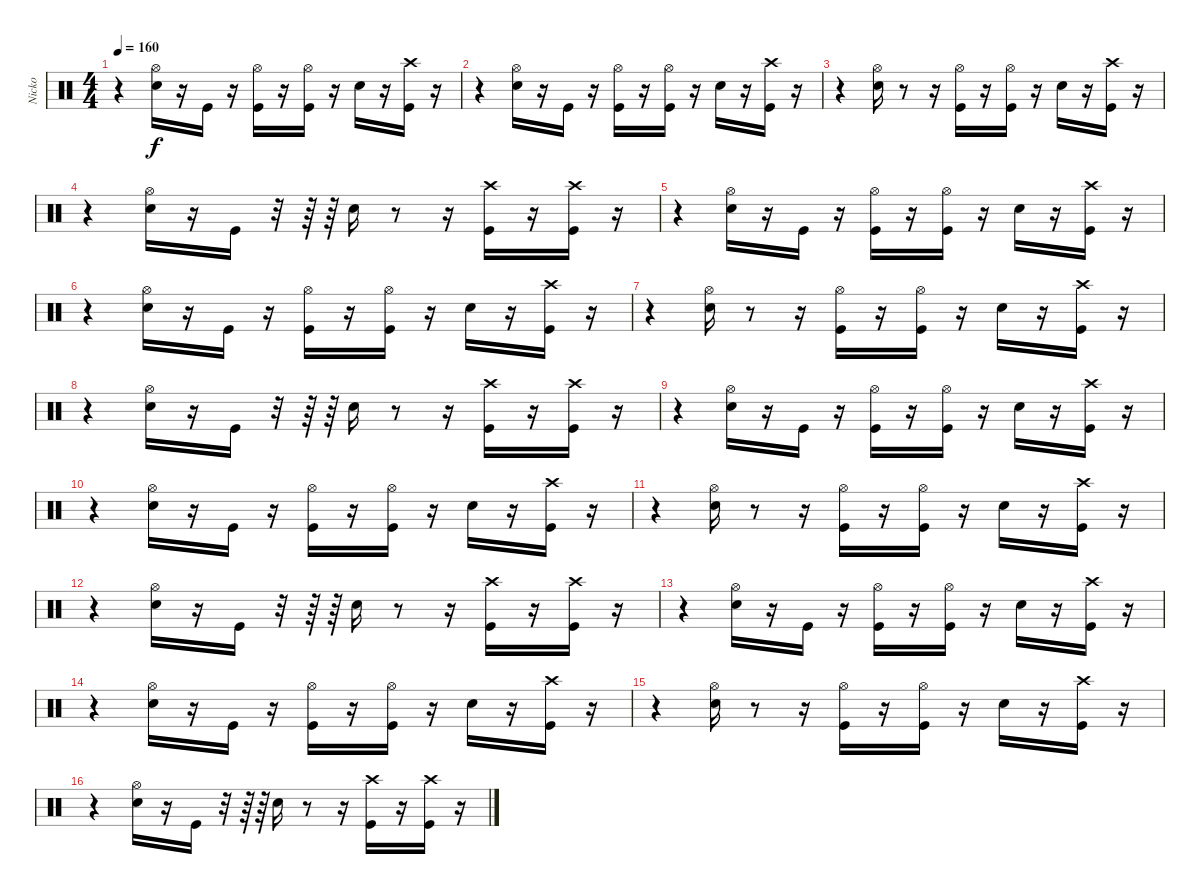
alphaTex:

\track ("Nicko" "Nicko") {instrument percussion}
\staff {score}
\articulation defaults
\ts (4 4)
\tempo 160
\clef neutral
\ks c
r.4{dy f} ("Hi-Hat (open)" "Snare (hit) 2").16 r.16 "Kick (hit)".16 r.16 ("Hi-Hat (open)" "Kick (hit)").16 r.16 ("Kick (hit)" "Hi-Hat (open)").16 r.16 "Snare (hit) 2".16 r.16 ("Kick (hit)" "Crash high (hit)").16 r.16 |
r.4 ("Snare (hit) 2" "Hi-Hat (open)").16 r.16 "Kick (hit)".16 r.16 ("Hi-Hat (open)" "Kick (hit)").16 r.16 ("Kick (hit)" "Hi-Hat (open)").16 r.16 "Snare (hit) 2".16 r.16 ("Kick (hit)" "Crash high (hit)").16 r.16 |
r.4 ("Snare (hit) 2" "Hi-Hat (open)").16 r.8 r.16 ("Hi-Hat (open)" "Kick (hit)").16 r.16 ("Hi-Hat (open)" "Kick (hit)").16 r.16 "Snare (hit) 2".16 r.16 ("Kick (hit)" "Crash high (hit)").16 r.16 |
r.4 ("Hi-Hat (open)" "Snare (hit) 2").16 r.16 "Kick (hit)".16 r.32 r.64 r.64 "Snare (hit) 2".16 r.8 r.16 ("Kick (hit)" "Crash high (hit)").16 r.16 ("Kick (hit)" "Crash high (hit)").16 r.16 |
r.4 ("Snare (hit) 2" "Hi-Hat (open)").16 r.16 "Kick (hit)".16 r.16 ("Hi-Hat (open)" "Kick (hit)").16 r.16 ("Kick (hit)" "Hi-Hat (open)").16 r.16 "Snare (hit) 2".16 r.16 ("Kick (hit)" "Crash high (hit)").16 r.16 |
r.4 ("Snare (hit) 2" "Hi-Hat (open)").16 r.16 "Kick (hit)".16 r.16 ("Hi-Hat (open)" "Kick (hit)").16 r.16 ("Kick (hit)" "Hi-Hat (open)").16 r.16 "Snare (hit) 2".16 r.16 ("Kick (hit)" "Crash high (hit)").16 r.16 |
r.4 ("Snare (hit) 2" "Hi-Hat (open)").16 r.8 r.16 ("Hi-Hat (open)" "Kick (hit)").16 r.16 ("Hi-Hat (open)" "Kick (hit)").16 r.16 "Snare (hit) 2".16 r.16 ("Kick (hit)" "Crash high (hit)").16 r.16 |
r.4 ("Hi-Hat (open)" "Snare (hit) 2").16 r.16 "Kick (hit)".16 r.32 r.64 r.64 "Snare (hit) 2".16 r.8 r.16 ("Kick (hit)" "Crash high (hit)").16 r.16 ("Kick (hit)" "Crash high (hit)").16 r.16 |
r.4 ("Snare (hit) 2" "Hi-Hat (open)").16 r.16 "Kick (hit)".16 r.16 ("Hi-Hat (open)" "Kick (hit)").16 r.16 ("Kick (hit)" "Hi-Hat (open)").16 r.16 "Snare (hit) 2".16 r.16 ("Kick (hit)" "Crash high (hit)").16 r.16 |
r.4 ("Snare (hit) 2" "Hi-Hat (open)").16 r.16 "Kick (hit)".16 r.16 ("Hi-Hat (open)" "Kick (hit)").16 r.16 ("Kick (hit)" "Hi-Hat (open)").16 r.16 "Snare (hit) 2".16 r.16 ("Kick (hit)" "Crash high (hit)").16 r.16 |
r.4 ("Snare (hit) 2" "Hi-Hat (open)").16 r.8 r.16 ("Hi-Hat (open)" "Kick (hit)").16 r.16 ("Hi-Hat (open)" "Kick (hit)").16 r.16 "Snare (hit) 2".16 r.16 ("Kick (hit)" "Crash high (hit)").16 r.16 |
r.4 ("Hi-Hat (open)" "Snare (hit) 2").16 r.16 "Kick (hit)".16 r.32 r.64 r.64 "Snare (hit) 2".16 r.8 r.16 ("Kick (hit)" "Crash high (hit)").16 r.16 ("Kick (hit)" "Crash high (hit)").16 r.16 |
r.4 ("Snare (hit) 2" "Hi-Hat (open)").16 r.16 "Kick (hit)".16 r.16 ("Hi-Hat (open)" "Kick (hit)").16 r.16 ("Kick (hit)" "Hi-Hat (open)").16 r.16 "Snare (hit) 2".16 r.16 ("Kick (hit)" "Crash high (hit)").16 r.16 |
r.4 ("Snare (hit) 2" "Hi-Hat (open)").16 r.16 "Kick (hit)".16 r.16 ("Hi-Hat (open)" "Kick (hit)").16 r.16 ("Kick (hit)" "Hi-Hat (open)").16 r.16 "Snare (hit) 2".16 r.16 ("Kick (hit)" "Crash high (hit)").16 r.16 |
r.4 ("Snare (hit) 2" "Hi-Hat (open)").16 r.8 r.16 ("Hi-Hat (open)" "Kick (hit)").16 r.16 ("Hi-Hat (open)" "Kick (hit)").16 r.16 "Snare (hit) 2".16 r.16 ("Kick (hit)" "Crash high (hit)").16 r.16 |
r.4 ("Hi-Hat (open)" "Snare (hit) 2").16 r.16 "Kick (hit)".16 r.32 r.64 r.64 "Snare (hit) 2".16 r.8 r.16 ("Kick (hit)" "Crash high (hit)").16 r.16 ("Kick (hit)" "Crash high (hit)").16 r.16
